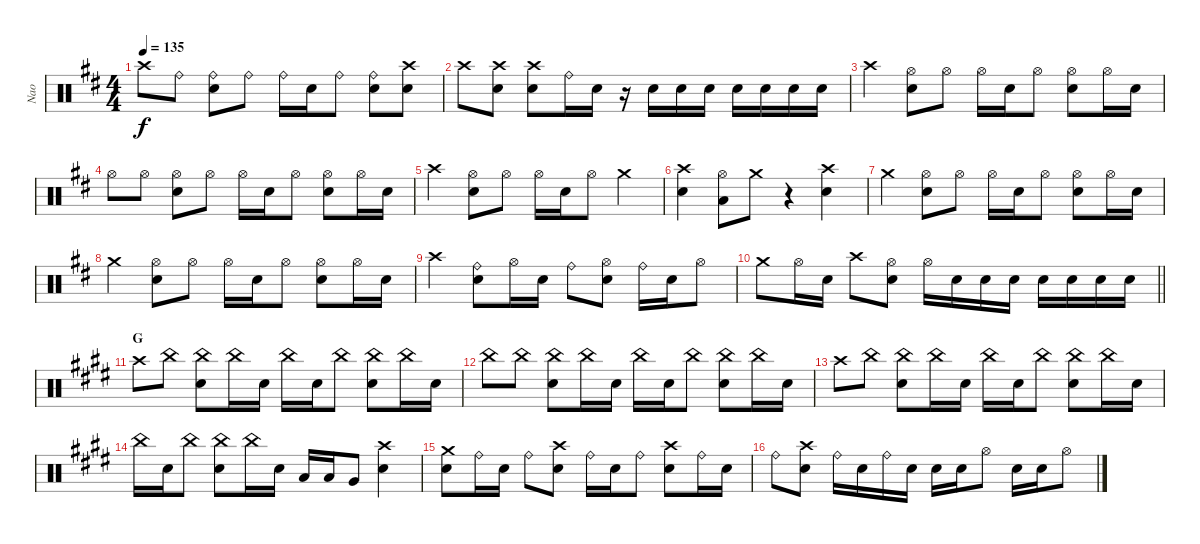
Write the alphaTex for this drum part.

\track ("Nao" "Nao") {instrument percussion}
\staff {score}
\articulation defaults
\ts (4 4)
\tempo 135
\clef neutral
\ks d "Crash high (hit)".8{dy f} "Ride (bell)".8
("Ride (bell)" "Snare (hit) 2").8 "Ride (bell)".8 "Ride (bell)".16 "Snare (hit) 2".16 "Ride (bell)".8 ("Ride (bell)" "Snare (hit) 2").8 ("Crash high (hit)" "Snare (hit) 2").8 |
"Crash high (hit)".8 ("Crash high (hit)" "Snare (hit) 2").8 ("Crash high (hit)" "Snare (hit) 2").8 "Ride (bell)".16 "Snare (hit) 2".16 r.16 "Snare (hit) 2".16 "Snare (hit) 2".16 "Snare (hit) 2".16 "Snare (hit) 2".16 "Snare (hit) 2".16 "Snare (hit) 2".16 "Snare (hit) 2".16 |
"Crash high (hit)".4 ("Hi-Hat (open)" "Snare (hit) 2").8 "Hi-Hat (open)".8 "Hi-Hat (open)".16 "Snare (hit) 2".16 "Hi-Hat (open)".8 ("Hi-Hat (open)" "Snare (hit) 2").8 "Hi-Hat (open)".16 "Snare (hit) 2".16 |
"Hi-Hat (open)".8 "Hi-Hat (open)".8 ("Hi-Hat (open)" "Snare (hit) 2").8 "Hi-Hat (open)".8 "Hi-Hat (open)".16 "Snare (hit) 2".16 "Hi-Hat (open)".8 ("Hi-Hat (open)" "Snare (hit) 2").8 "Hi-Hat (open)".16 "Snare (hit) 2".16 |
"Crash high (hit)".4 ("Hi-Hat (open)" "Snare (hit) 2").8 "Hi-Hat (open)".8 "Hi-Hat (open)".16 "Snare (hit) 2".16 "Hi-Hat (open)".8 "Crash medium (hit)".4 |
("Crash high (hit)" "Snare (hit) 2").4 ("Hi-Hat (open)" "Low Tom (hit)").8 "Crash medium (hit)".8 r.4 ("Crash high (hit)" "Snare (hit) 2").4 |
"Crash medium (hit)".4 ("Hi-Hat (open)" "Snare (hit) 2").8 "Hi-Hat (open)".8 "Hi-Hat (open)".16 "Snare (hit) 2".16 "Hi-Hat (open)".8 ("Hi-Hat (open)" "Snare (hit) 2").8 "Hi-Hat (open)".16 "Snare (hit) 2".16 |
"Crash medium (hit)".4 ("Hi-Hat (open)" "Snare (hit) 2").8 "Hi-Hat (open)".8 "Hi-Hat (open)".16 "Snare (hit) 2".16 "Hi-Hat (open)".8 ("Hi-Hat (open)" "Snare (hit) 2").8 "Hi-Hat (open)".16 "Snare (hit) 2".16 |
"Crash high (hit)".4 ("Ride (bell)" "Snare (hit) 2").8 "Hi-Hat (open)".16 "Snare (hit) 2".16 "Ride (bell)".8 ("Hi-Hat (open)" "Snare (hit) 2").8 "Ride (bell)".16 "Snare (hit) 2".16 "Hi-Hat (open)".8 |
\barLineRight lightlight "Crash medium (hit)".8 "Hi-Hat (open)".16 "Snare (hit) 2".16 "Crash high (hit)".8
("Hi-Hat (open)" "Snare (hit) 2").8 "Hi-Hat (open)".16 "Snare (hit) 2".16 "Snare (hit) 2".16 "Snare (hit) 2".16 "Snare (hit) 2".16 "Snare (hit) 2".16 "Snare (hit) 2".16 "Snare (hit) 2".16 |
\section ("" "G")
\ks e "Crash high (hit)".8 "China (hit)".8
("China (hit)" "Snare (hit) 2").8 "China (hit)".16 "Snare (hit) 2".16 "China (hit)".16 "Snare (hit) 2".16 "China (hit)".8 ("China (hit)" "Snare (hit) 2").8 "China (hit)".16 "Snare (hit) 2".16 |
"China (hit)".8 "China (hit)".8 ("China (hit)" "Snare (hit) 2").8 "China (hit)".16 "Snare (hit) 2".16 "China (hit)".16 "Snare (hit) 2".16 "China (hit)".8 ("China (hit)" "Snare (hit) 2").8 "China (hit)".16 "Snare (hit) 2".16 |
"Crash high (hit)".8 "China (hit)".8 ("China (hit)" "Snare (hit) 2").8 "China (hit)".16 "Snare (hit) 2".16 "China (hit)".16 "Snare (hit) 2".16 "China (hit)".8 ("China (hit)" "Snare (hit) 2").8 "China (hit)".16 "Snare (hit) 2".16 |
"China (hit)".16 "Snare (hit) 2".16 "China (hit)".8 ("China (hit)" "Snare (hit) 2").8 "China (hit)".16 "Snare (hit) 2".16 "Low Tom (hit)".16 "Low Tom (hit)".16 "Very Low Tom (hit)".8 ("Crash high (hit)" "Snare (hit) 2").4 |
("Crash medium (hit)" "Snare (hit) 2").8 "Ride (bell)".16 "Snare (hit) 2".16 "Ride (bell)".8 ("Crash high (hit)" "Snare (hit) 2").8 "Ride (bell)".16 "Snare (hit) 2".16 "Ride (bell)".8 ("Crash high (hit)" "Snare (hit) 2").8 "Ride (bell)".16 "Snare (hit) 2".16 |
"Ride (bell)".8 ("Crash high (hit)" "Snare (hit) 2").8 "Ride (bell)".16 "Snare (hit) 2".16 "Ride (bell)".16 "Snare (hit) 2".16 "Snare (hit) 2".16 "Snare (hit) 2".16 "Hi-Hat (open)".8 "Snare (hit) 2".16 "Snare (hit) 2".16 "Hi-Hat (open)".8
